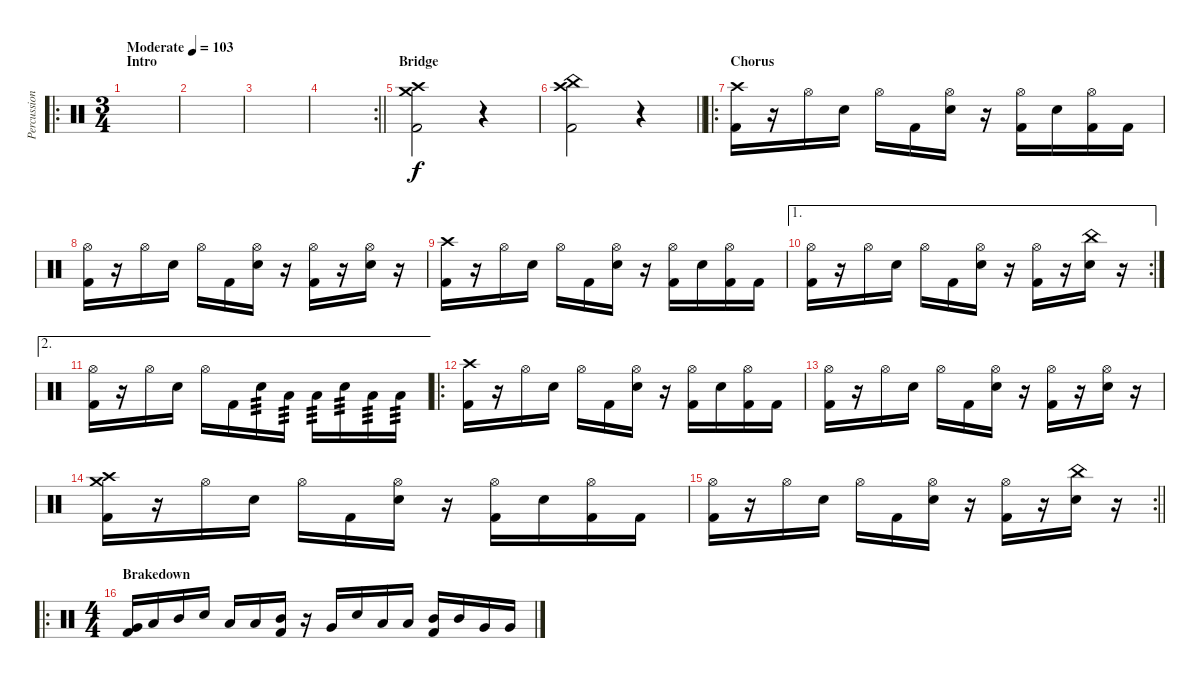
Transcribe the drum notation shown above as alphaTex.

\track ("Percussion" "Percussion") {instrument percussion}
\staff {score}
\articulation defaults
\ro
\ts (3 4)
\section ("" "Intro")
\tempo (103 "Moderate")
\clef neutral
\ks c
|
|
|
\rc 2
\barLineRight lightlight
|
\section ("" "Bridge")
("Crash high (hit)" "Crash medium (hit)" "Kick (hit) 2").2 r.4 |
\barLineRight lightlight
("Crash high (hit)" "China (hit)" "Kick (hit) 2").2 r.4 |
\ro
\section ("" "Chorus")
("Crash high (hit)" "Kick (hit) 2").16 r.16 "Hi-Hat (open)".16 "Electric Snare (hit)".16 "Hi-Hat (open)".16 "Kick (hit) 2".16 ("Hi-Hat (open)" "Electric Snare (hit)").16 r.16 ("Hi-Hat (open)" "Kick (hit) 2").16 "Electric Snare (hit)".16 ("Hi-Hat (open)" "Kick (hit) 2").16 "Kick (hit) 2".16 |
("Hi-Hat (open)" "Kick (hit) 2").16 r.16 "Hi-Hat (open)".16 "Electric Snare (hit)".16 "Hi-Hat (open)".16 "Kick (hit) 2".16 ("Hi-Hat (open)" "Electric Snare (hit)").16 r.16 ("Hi-Hat (open)" "Kick (hit) 2").16 r.16 ("Hi-Hat (open)" "Electric Snare (hit)").16 r.16 |
("Crash high (hit)" "Kick (hit) 2").16 r.16 "Hi-Hat (open)".16 "Electric Snare (hit)".16 "Hi-Hat (open)".16 "Kick (hit) 2".16 ("Hi-Hat (open)" "Electric Snare (hit)").16 r.16 ("Hi-Hat (open)" "Kick (hit) 2").16 "Electric Snare (hit)".16 ("Hi-Hat (open)" "Kick (hit) 2").16 "Kick (hit) 2".16 |
\ae 1
\rc 2
("Hi-Hat (open)" "Kick (hit) 2").16 r.16 "Hi-Hat (open)".16 "Electric Snare (hit)".16 "Hi-Hat (open)".16 "Kick (hit) 2".16 ("Hi-Hat (open)" "Electric Snare (hit)").16 r.16 ("Hi-Hat (open)" "Kick (hit) 2").16 r.16 ("China (hit)" "Electric Snare (hit)").16 r.16 |
\ae 2
("Hi-Hat (open)" "Kick (hit) 2").16 r.16 "Hi-Hat (open)".16 "Electric Snare (hit)".16 "Hi-Hat (open)".16 "Kick (hit) 2".16 "Electric Snare (hit)".16{tp 3} "Low Tom (hit)".16{tp 3} "Low Tom (hit)".16{tp 3} "Electric Snare (hit)".16{tp 3} "Low Tom (hit)".16{tp 3} "Low Tom (hit)".16{tp 3} |
\ro
("Crash high (hit)" "Kick (hit) 2").16 r.16 "Hi-Hat (open)".16 "Electric Snare (hit)".16 "Hi-Hat (open)".16 "Kick (hit) 2".16 ("Hi-Hat (open)" "Electric Snare (hit)").16 r.16 ("Hi-Hat (open)" "Kick (hit) 2").16 "Electric Snare (hit)".16 ("Hi-Hat (open)" "Kick (hit) 2").16 "Kick (hit) 2".16 |
("Hi-Hat (open)" "Kick (hit) 2").16 r.16 "Hi-Hat (open)".16 "Electric Snare (hit)".16 "Hi-Hat (open)".16 "Kick (hit) 2".16 ("Hi-Hat (open)" "Electric Snare (hit)").16 r.16 ("Hi-Hat (open)" "Kick (hit) 2").16 r.16 ("Hi-Hat (open)" "Electric Snare (hit)").16 r.16 |
("Crash high (hit)" "Crash medium (hit)" "Kick (hit) 2").16 r.16 "Hi-Hat (open)".16 "Electric Snare (hit)".16 "Hi-Hat (open)".16 "Kick (hit) 2".16 ("Hi-Hat (open)" "Electric Snare (hit)").16 r.16 ("Hi-Hat (open)" "Kick (hit) 2").16 "Electric Snare (hit)".16 ("Hi-Hat (open)" "Kick (hit) 2").16 "Kick (hit) 2".16 |
\rc 2
\barLineRight lightlight
("Hi-Hat (open)" "Kick (hit) 2").16 r.16 "Hi-Hat (open)".16 "Electric Snare (hit)".16 "Hi-Hat (open)".16 "Kick (hit) 2".16 ("Hi-Hat (open)" "Electric Snare (hit)").16 r.16 ("Hi-Hat (open)" "Kick (hit) 2").16 r.16 ("China (hit)" "Electric Snare (hit)").16 r.16 |
\ro
\ts (4 4)
\section ("" "Brakedown")
("Very Low Tom (hit)" "Kick (hit) 2").16 "Low Tom (hit)".16 "Mid Tom (hit)".16 "Electric Snare (hit)".16 "Low Tom (hit)".16 "Low Tom (hit)".16 ("Mid Tom (hit)" "Kick (hit) 2").16 r.16 "Very Low Tom (hit)".16 "Electric Snare (hit)".16 "Low Tom (hit)".16 "Low Tom (hit)".16 ("Mid Tom (hit)" "Kick (hit) 2").16 "Mid Tom (hit)".16 "Very Low Tom (hit)".16 "Very Low Tom (hit)".16
